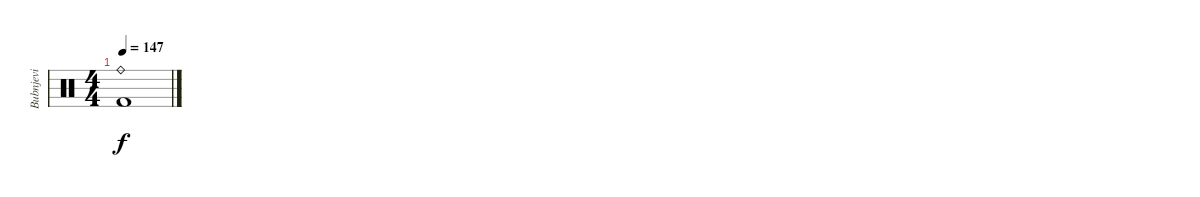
\track ("Bubnjevi" "Bubnjevi") {instrument percussion}
\staff {score}
\articulation defaults
\ts (4 4)
\tempo 147
\clef neutral
\ks c
("Ride (bell)" "Kick (hit) 2").1{dy f}
